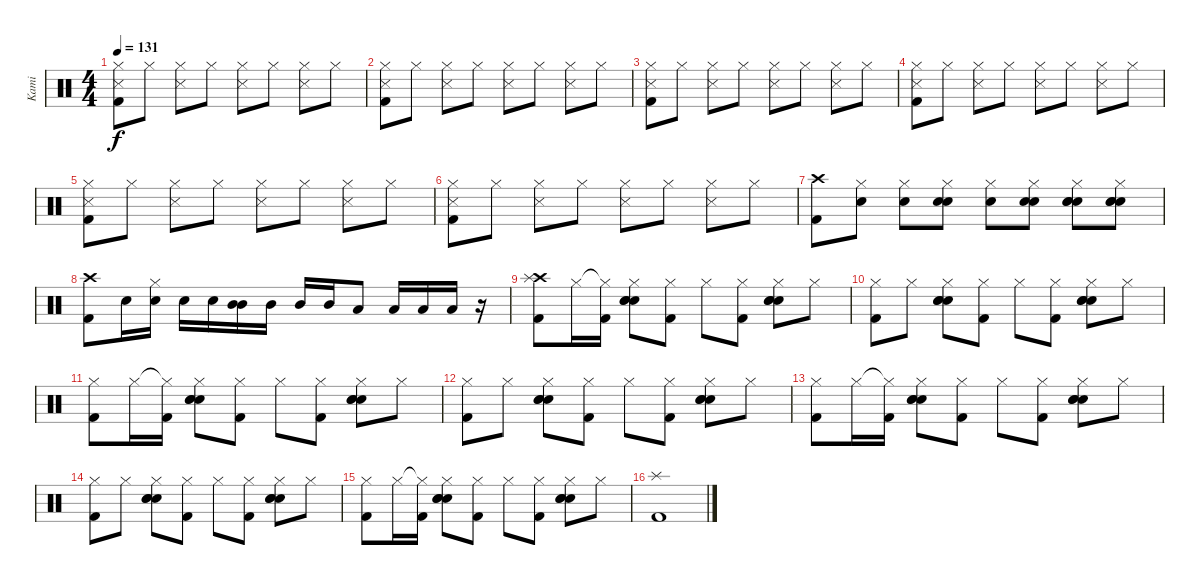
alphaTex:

\track ("Kami" "Kami") {instrument percussion}
\staff {score}
\articulation defaults
\ts (4 4)
\tempo 131
\clef neutral
\ks c
("Hi-Hat (closed)" "Kick (hit) 2" "Snare (side stick) 3").8{dy f} "Hi-Hat (closed)".8 ("Hi-Hat (closed)" "Snare (side stick) 3").8 "Hi-Hat (closed)".8 ("Hi-Hat (closed)" "Snare (side stick) 3").8 "Hi-Hat (closed)".8 ("Hi-Hat (closed)" "Snare (side stick) 3").8 "Hi-Hat (closed)".8 |
("Hi-Hat (closed)" "Kick (hit) 2" "Snare (side stick) 3").8 "Hi-Hat (closed)".8 ("Hi-Hat (closed)" "Snare (side stick) 3").8 "Hi-Hat (closed)".8 ("Hi-Hat (closed)" "Snare (side stick) 3").8 "Hi-Hat (closed)".8 ("Hi-Hat (closed)" "Snare (side stick) 3").8 "Hi-Hat (closed)".8 |
("Hi-Hat (closed)" "Kick (hit) 2" "Snare (side stick) 3").8 "Hi-Hat (closed)".8 ("Hi-Hat (closed)" "Snare (side stick) 3").8 "Hi-Hat (closed)".8 ("Hi-Hat (closed)" "Snare (side stick) 3").8 "Hi-Hat (closed)".8 ("Hi-Hat (closed)" "Snare (side stick) 3").8 "Hi-Hat (closed)".8 |
("Hi-Hat (closed)" "Kick (hit) 2" "Snare (side stick) 3").8 "Hi-Hat (closed)".8 ("Hi-Hat (closed)" "Snare (side stick) 3").8 "Hi-Hat (closed)".8 ("Hi-Hat (closed)" "Snare (side stick) 3").8 "Hi-Hat (closed)".8 ("Hi-Hat (closed)" "Snare (side stick) 3").8 "Hi-Hat (closed)".8 |
("Hi-Hat (closed)" "Kick (hit) 2" "Snare (side stick) 3").8 "Hi-Hat (closed)".8 ("Hi-Hat (closed)" "Snare (side stick) 3").8 "Hi-Hat (closed)".8 ("Hi-Hat (closed)" "Snare (side stick) 3").8 "Hi-Hat (closed)".8 ("Hi-Hat (closed)" "Snare (side stick) 3").8 "Hi-Hat (closed)".8 |
("Hi-Hat (closed)" "Kick (hit) 2" "Snare (side stick) 3").8 "Hi-Hat (closed)".8 ("Hi-Hat (closed)" "Snare (side stick) 3").8 "Hi-Hat (closed)".8 ("Hi-Hat (closed)" "Snare (side stick) 3").8 "Hi-Hat (closed)".8 ("Hi-Hat (closed)" "Snare (side stick) 3").8 "Hi-Hat (closed)".8 |
("Crash high (hit)" "Kick (hit) 2").8 ("Hi-Hat (closed)" "Electric Snare (hit)").8 ("Hi-Hat (closed)" "Electric Snare (hit)").8 ("Hi-Hat (closed)" "Electric Snare (hit)" "Electric Snare (hit)").8 ("Hi-Hat (closed)" "Electric Snare (hit)").8 ("Electric Snare (hit)" "Hi-Hat (closed)" "Electric Snare (hit)").8 ("Electric Snare (hit)" "Electric Snare (hit)" "Hi-Hat (closed)" "Electric Snare (hit)").8 ("Electric Snare (hit)" "Electric Snare (hit)" "Hi-Hat (closed)" "Electric Snare (hit)").8 |
("Crash high (hit)" "Kick (hit) 2").8 "Electric Snare (hit)".16 ("Hi-Hat (closed)" "Electric Snare (hit)").16 "Electric Snare (hit)".16 "Electric Snare (hit)".16 ("Mid Tom (hit)" "Mid Tom (hit)").16 "Mid Tom (hit)".16 "Mid Tom (hit)".16 "Mid Tom (hit)".16 "Low Floor Tom (hit)".8 "Low Floor Tom (hit)".16 "Low Floor Tom (hit)".16 "Low Floor Tom (hit)".16 r.16 |
("Crash high (hit)" "Kick (hit) 2" "Splash (hit)").8 "Hi-Hat (closed)".16 ("Hi-Hat (closed)"{t} "Kick (hit) 2").16 ("Electric Snare (hit)" "Hi-Hat (closed)" "Electric Snare (hit)" "Electric Snare (hit)").8 ("Hi-Hat (closed)" "Kick (hit) 2").8 "Hi-Hat (closed)".8 ("Hi-Hat (closed)" "Kick (hit) 2").8 ("Electric Snare (hit)" "Hi-Hat (closed)" "Electric Snare (hit)" "Electric Snare (hit)").8 "Hi-Hat (closed)".8 |
("Hi-Hat (closed)" "Kick (hit) 2").8 "Hi-Hat (closed)".8 ("Electric Snare (hit)" "Hi-Hat (closed)" "Electric Snare (hit)" "Electric Snare (hit)").8 ("Hi-Hat (closed)" "Kick (hit) 2").8 "Hi-Hat (closed)".8 ("Hi-Hat (closed)" "Kick (hit) 2").8 ("Electric Snare (hit)" "Hi-Hat (closed)" "Electric Snare (hit)" "Electric Snare (hit)").8 "Hi-Hat (closed)".8 |
("Hi-Hat (closed)" "Kick (hit) 2").8 "Hi-Hat (closed)".16 ("Hi-Hat (closed)"{t} "Kick (hit) 2").16 ("Electric Snare (hit)" "Hi-Hat (closed)" "Electric Snare (hit)" "Electric Snare (hit)").8 ("Hi-Hat (closed)" "Kick (hit) 2").8 "Hi-Hat (closed)".8 ("Hi-Hat (closed)" "Kick (hit) 2").8 ("Electric Snare (hit)" "Hi-Hat (closed)" "Electric Snare (hit)" "Electric Snare (hit)").8 "Hi-Hat (closed)".8 |
("Hi-Hat (closed)" "Kick (hit) 2").8 "Hi-Hat (closed)".8 ("Electric Snare (hit)" "Hi-Hat (closed)" "Electric Snare (hit)" "Electric Snare (hit)").8 ("Hi-Hat (closed)" "Kick (hit) 2").8 "Hi-Hat (closed)".8 ("Hi-Hat (closed)" "Kick (hit) 2").8 ("Electric Snare (hit)" "Hi-Hat (closed)" "Electric Snare (hit)" "Electric Snare (hit)").8 "Hi-Hat (closed)".8 |
("Hi-Hat (closed)" "Kick (hit) 2").8 "Hi-Hat (closed)".16 ("Hi-Hat (closed)"{t} "Kick (hit) 2").16 ("Electric Snare (hit)" "Hi-Hat (closed)" "Electric Snare (hit)" "Electric Snare (hit)").8 ("Hi-Hat (closed)" "Kick (hit) 2").8 "Hi-Hat (closed)".8 ("Hi-Hat (closed)" "Kick (hit) 2").8 ("Electric Snare (hit)" "Hi-Hat (closed)" "Electric Snare (hit)" "Electric Snare (hit)").8 "Hi-Hat (closed)".8 |
("Hi-Hat (closed)" "Kick (hit) 2").8 "Hi-Hat (closed)".8 ("Electric Snare (hit)" "Hi-Hat (closed)" "Electric Snare (hit)" "Electric Snare (hit)").8 ("Hi-Hat (closed)" "Kick (hit) 2").8 "Hi-Hat (closed)".8 ("Hi-Hat (closed)" "Kick (hit) 2").8 ("Electric Snare (hit)" "Hi-Hat (closed)" "Electric Snare (hit)" "Electric Snare (hit)").8 "Hi-Hat (closed)".8 |
("Hi-Hat (closed)" "Kick (hit) 2").8 "Hi-Hat (closed)".16 ("Hi-Hat (closed)"{t} "Kick (hit) 2").16 ("Electric Snare (hit)" "Hi-Hat (closed)" "Electric Snare (hit)" "Electric Snare (hit)").8 ("Hi-Hat (closed)" "Kick (hit) 2").8 "Hi-Hat (closed)".8 ("Hi-Hat (closed)" "Kick (hit) 2").8 ("Electric Snare (hit)" "Hi-Hat (closed)" "Electric Snare (hit)" "Electric Snare (hit)").8 "Hi-Hat (closed)".8 |
("Splash (hit)" "Kick (hit) 2").1
